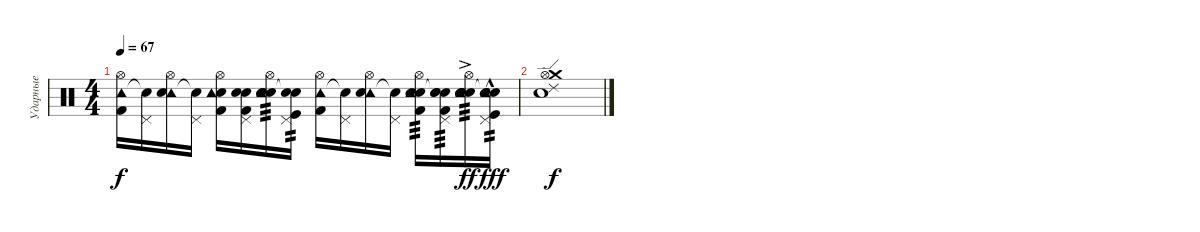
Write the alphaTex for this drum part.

\track ("Ударные" "Ударные") {instrument percussion}
\staff {score}
\articulation defaults
\ts (4 4)
\tempo 67
\clef neutral
\ks c
("Hi-Hat (open)" "Tambourine (hit)" "Kick (hit) 2").16{dy f} ("Pedal Hi-Hat (hit)" "Snare (hit)"{t}).16 ("Hi-Hat (open)" "Tambourine (hit)" "Snare (hit) 2").16 ("Pedal Hi-Hat (hit)" "Snare (hit) 2"{t}).16 ("Hi-Hat (open)" "Snare (hit) 2" "Tambourine (hit)" "Kick (hit) 2").16 ("Pedal Hi-Hat (hit)" "Hand Clap (hit)" "Snare (hit) 2" "Kick (hit) 2").16 ("Hi-Hat (open)" "Hand Clap (hit)" "Snare (hit) 2" "Tambourine (hit)" "Snare (hit) 2").16{tp 3} ("Pedal Hi-Hat (hit)" "Snare (hit) 2" "Snare (hit) 2"{t} "Kick (hit)").16{tp 2} ("Hi-Hat (open)" "Tambourine (hit)" "Kick (hit) 2").16 ("Pedal Hi-Hat (hit)" "Snare (hit)"{t}).16 ("Hi-Hat (open)" "Tambourine (hit)" "Snare (hit) 2").16 ("Pedal Hi-Hat (hit)" "Snare (hit) 2"{t}).16 ("Hi-Hat (open)" "Electric Snare (hit)" "Hand Clap (hit)" "Tambourine (hit)" "Kick (hit) 2").16{tp 3} ("Pedal Hi-Hat (hit)" "Hand Clap (hit)" "Electric Snare (hit)" "Snare (hit)"{t} "Kick (hit) 2").16{tp 3} ("Hi-Hat (open)" "Hand Clap (hit)" "Electric Snare (hit)"{ac} "Hand Clap (hit)" "Snare (hit) 2" "Tambourine (hit)").16{tp 3 dy ff} ("Pedal Hi-Hat (hit)" "Hand Clap (hit)" "Electric Snare (hit)"{hac} "Snare (hit)"{t} "Tambourine (hit)" "Kick (hit)").16{tp 2 dy fff} |
("Crash medium (hit)" "Hand Clap (hit)" "Ride (edge) 2" "Hi-Hat (open)").1{dy f}
